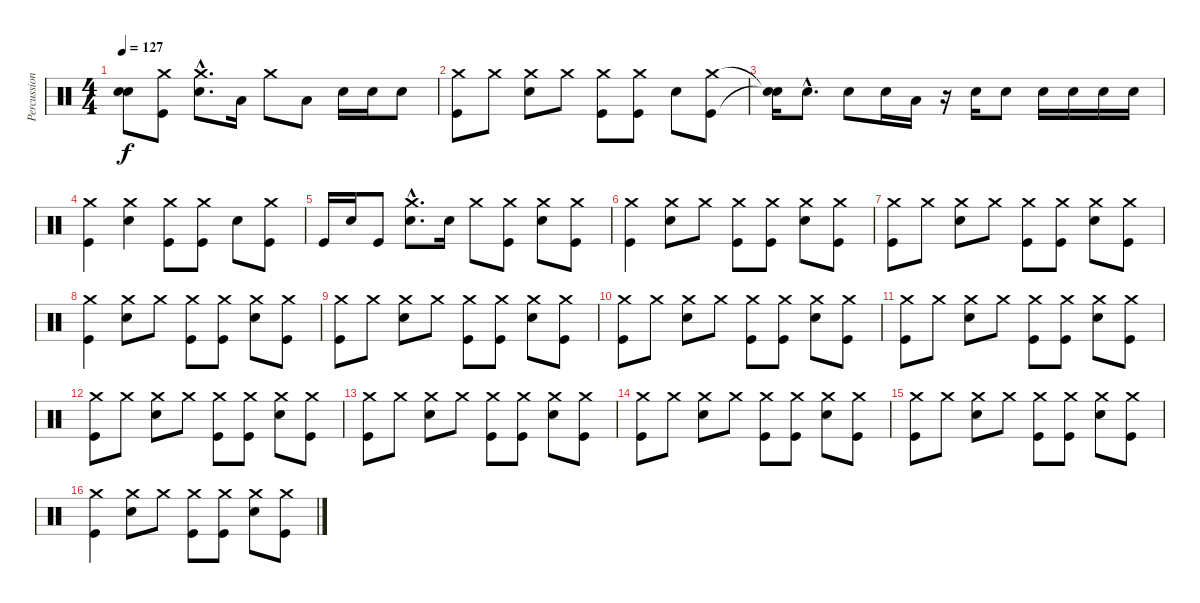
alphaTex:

\track ("Percussion" "Percussion") {instrument percussion}
\staff {score}
\articulation defaults
\ts (4 4)
\tempo 127
\clef neutral
\ks c
("Snare (hit)"{t} "Snare (hit)"{t}).8{dy f} ("Crash medium (hit)" "Kick (hit)").8 ("Crash medium (hit)"{hac} "Snare (hit) 2"{hac}).8{d} "Low Tom (hit)".16 "Crash medium (hit)".8 "Low Tom (hit)".8 "Snare (hit) 2".16 "Snare (hit) 2".16 "Snare (hit) 2".8 |
("Crash medium (hit)" "Kick (hit)").8 "Crash medium (hit)".8 ("Crash medium (hit)" "Snare (hit) 2").8 "Crash medium (hit)".8 ("Crash medium (hit)" "Kick (hit)").8 ("Crash medium (hit)" "Kick (hit)").8 "Snare (hit) 2".8 ("Crash medium (hit)" "Kick (hit)").8 |
("Snare (hit)"{t} "Snare (hit)"{t}).16 "Snare (hit) 2"{hac}.8{d} "Snare (hit) 2".8 "Snare (hit) 2".16 "Low Tom (hit)".16 r.16 "Snare (hit) 2".16 "Snare (hit) 2".8 "Snare (hit) 2".16 "Snare (hit) 2".16 "Snare (hit) 2".16 "Snare (hit) 2".16 |
("Crash medium (hit)" "Kick (hit)").4 ("Crash medium (hit)" "Snare (hit) 2").4 ("Crash medium (hit)" "Kick (hit)").8 ("Crash medium (hit)" "Kick (hit)").8 "Snare (hit) 2".8 ("Crash medium (hit)" "Kick (hit)").8 |
"Kick (hit)".16 "Snare (hit) 2".16 "Kick (hit)".8 ("Crash medium (hit)"{hac} "Snare (hit) 2"{hac}).8{d} "Snare (hit) 2".16 "Crash medium (hit)".8 ("Crash medium (hit)" "Kick (hit)").8 ("Crash medium (hit)" "Snare (hit) 2").8 ("Crash medium (hit)" "Kick (hit)").8 |
("Crash medium (hit)" "Kick (hit)").4 ("Crash medium (hit)" "Snare (hit) 2").8 "Crash medium (hit)".8 ("Crash medium (hit)" "Kick (hit)").8 ("Crash medium (hit)" "Kick (hit)").8 ("Crash medium (hit)" "Snare (hit) 2").8 ("Crash medium (hit)" "Kick (hit)").8 |
("Crash medium (hit)" "Kick (hit)").8 "Crash medium (hit)".8 ("Crash medium (hit)" "Snare (hit) 2").8 "Crash medium (hit)".8 ("Crash medium (hit)" "Kick (hit)").8 ("Crash medium (hit)" "Kick (hit)").8 ("Crash medium (hit)" "Snare (hit) 2").8 ("Crash medium (hit)" "Kick (hit)").8 |
("Crash medium (hit)" "Kick (hit)").4 ("Crash medium (hit)" "Snare (hit) 2").8 "Crash medium (hit)".8 ("Crash medium (hit)" "Kick (hit)").8 ("Crash medium (hit)" "Kick (hit)").8 ("Crash medium (hit)" "Snare (hit) 2").8 ("Crash medium (hit)" "Kick (hit)").8 |
("Crash medium (hit)" "Kick (hit)").8 "Crash medium (hit)".8 ("Crash medium (hit)" "Snare (hit) 2").8 "Crash medium (hit)".8 ("Crash medium (hit)" "Kick (hit)").8 ("Crash medium (hit)" "Kick (hit)").8 ("Crash medium (hit)" "Snare (hit) 2").8 ("Crash medium (hit)" "Kick (hit)").8 |
("Crash medium (hit)" "Kick (hit)").8 "Crash medium (hit)".8 ("Crash medium (hit)" "Snare (hit) 2").8 "Crash medium (hit)".8 ("Crash medium (hit)" "Kick (hit)").8 ("Crash medium (hit)" "Kick (hit)").8 ("Crash medium (hit)" "Snare (hit) 2").8 ("Crash medium (hit)" "Kick (hit)").8 |
("Crash medium (hit)" "Kick (hit)").8 "Crash medium (hit)".8 ("Crash medium (hit)" "Snare (hit) 2").8 "Crash medium (hit)".8 ("Crash medium (hit)" "Kick (hit)").8 ("Crash medium (hit)" "Kick (hit)").8 ("Crash medium (hit)" "Snare (hit) 2").8 ("Crash medium (hit)" "Kick (hit)").8 |
("Crash medium (hit)" "Kick (hit)").8 "Crash medium (hit)".8 ("Crash medium (hit)" "Snare (hit) 2").8 "Crash medium (hit)".8 ("Crash medium (hit)" "Kick (hit)").8 ("Crash medium (hit)" "Kick (hit)").8 ("Crash medium (hit)" "Snare (hit) 2").8 ("Crash medium (hit)" "Kick (hit)").8 |
("Crash medium (hit)" "Kick (hit)").8 "Crash medium (hit)".8 ("Crash medium (hit)" "Snare (hit) 2").8 "Crash medium (hit)".8 ("Crash medium (hit)" "Kick (hit)").8 ("Crash medium (hit)" "Kick (hit)").8 ("Crash medium (hit)" "Snare (hit) 2").8 ("Crash medium (hit)" "Kick (hit)").8 |
("Crash medium (hit)" "Kick (hit)").8 "Crash medium (hit)".8 ("Crash medium (hit)" "Snare (hit) 2").8 "Crash medium (hit)".8 ("Crash medium (hit)" "Kick (hit)").8 ("Crash medium (hit)" "Kick (hit)").8 ("Crash medium (hit)" "Snare (hit) 2").8 ("Crash medium (hit)" "Kick (hit)").8 |
("Crash medium (hit)" "Kick (hit)").8 "Crash medium (hit)".8 ("Crash medium (hit)" "Snare (hit) 2").8 "Crash medium (hit)".8 ("Crash medium (hit)" "Kick (hit)").8 ("Crash medium (hit)" "Kick (hit)").8 ("Crash medium (hit)" "Snare (hit) 2").8 ("Crash medium (hit)" "Kick (hit)").8 |
("Crash medium (hit)" "Kick (hit)").4 ("Crash medium (hit)" "Snare (hit) 2").8 "Crash medium (hit)".8 ("Crash medium (hit)" "Kick (hit)").8 ("Crash medium (hit)" "Kick (hit)").8 ("Crash medium (hit)" "Snare (hit) 2").8 ("Crash medium (hit)" "Kick (hit)").8
